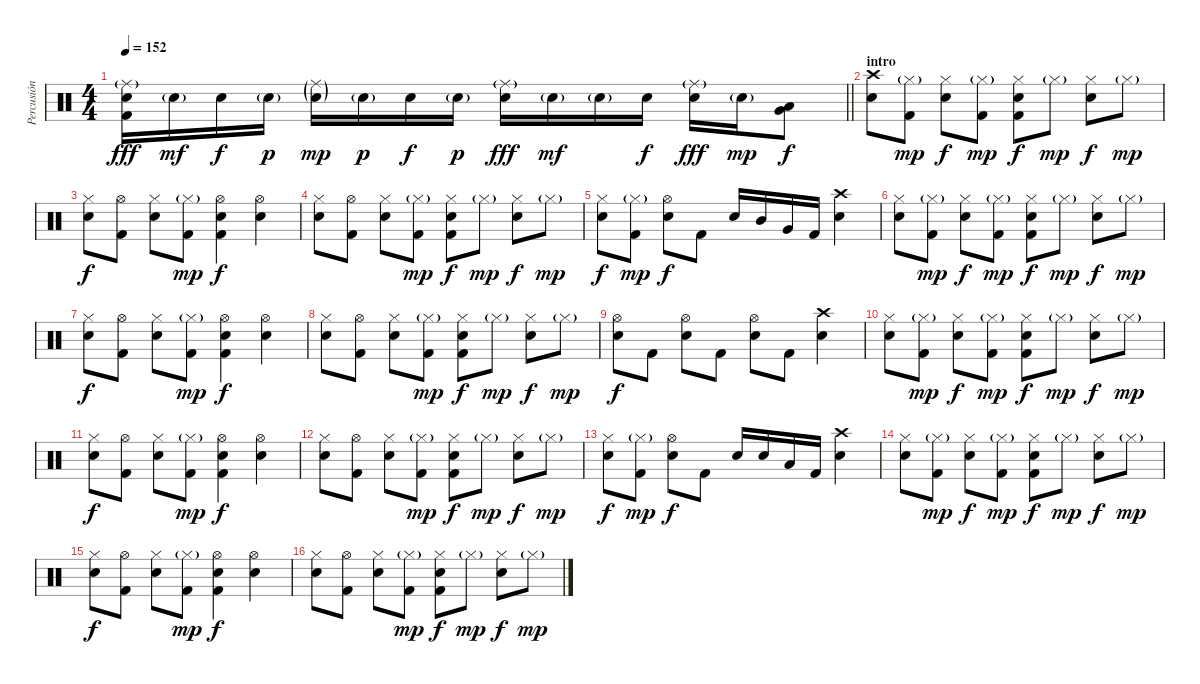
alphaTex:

\track ("Percusión" "Percusión") {instrument percussion}
\staff {score}
\articulation defaults
\ts (4 4)
\tempo 152
\clef neutral
\barLineRight lightlight
\ks c
("Ride (middle)"{g} "Snare (hit) 2" "Kick (hit) 2").16{dy fff} "Snare (hit) 2"{g}.16{dy mf} "Snare (hit) 2".16{dy f} "Snare (hit) 2"{g}.16{dy p} ("Ride (middle)"{g} "Snare (hit) 2"{g}).16{dy mp} "Snare (hit) 2"{g}.16{dy p} "Snare (hit) 2".16{dy f} "Snare (hit) 2"{g}.16{dy p} ("Ride (middle)"{g} "Snare (hit) 2").16{dy fff} "Snare (hit) 2"{g}.16{dy mf} "Snare (hit) 2"{g}.16 "Snare (hit) 2".16{dy f} ("Ride (middle)"{g} "Snare (hit) 2").16{dy fff} "Snare (hit) 2"{g}.16{dy mp} ("Low Tom (hit)" "Very Low Tom (hit)").8{dy f} |
\section ("" "intro")
("Crash high (hit)" "Snare (hit) 2").8 ("Hi-Hat (closed)"{g} "Kick (hit) 2").8{dy mp} ("Hi-Hat (closed)" "Snare (hit) 2").8{dy f} ("Hi-Hat (closed)"{g} "Kick (hit) 2").8{dy mp} ("Hi-Hat (closed)" "Snare (hit) 2" "Kick (hit) 2").8{dy f} "Hi-Hat (closed)"{g}.8{dy mp} ("Hi-Hat (closed)" "Snare (hit) 2").8{dy f} "Hi-Hat (closed)"{g}.8{dy mp} |
("Hi-Hat (closed)" "Snare (hit) 2").8{dy f} ("Hi-Hat (open)" "Kick (hit) 2").8 ("Hi-Hat (closed)" "Snare (hit) 2").8 ("Hi-Hat (closed)"{g} "Kick (hit) 2").8{dy mp} ("Hi-Hat (open)" "Snare (hit) 2" "Kick (hit) 2").4{dy f} ("Hi-Hat (open)" "Snare (hit) 2").4 |
("Hi-Hat (closed)" "Snare (hit) 2").8 ("Hi-Hat (open)" "Kick (hit) 2").8 ("Hi-Hat (closed)" "Snare (hit) 2").8 ("Hi-Hat (closed)"{g} "Kick (hit) 2").8{dy mp} ("Hi-Hat (closed)" "Snare (hit) 2" "Kick (hit) 2").8{dy f} "Hi-Hat (closed)"{g}.8{dy mp} ("Hi-Hat (closed)" "Snare (hit) 2").8{dy f} "Hi-Hat (closed)"{g}.8{dy mp} |
("Hi-Hat (closed)" "Snare (hit) 2").8{dy f} ("Hi-Hat (closed)"{g} "Kick (hit) 2").8{dy mp} ("Hi-Hat (open)" "Snare (hit) 2").8{dy f} "Kick (hit) 2".8 "Snare (hit) 2".16 "Mid Tom (hit)".16 "Very Low Tom (hit)".16 "Kick (hit) 2".16 ("Crash high (hit)" "Snare (hit) 2").4 |
("Hi-Hat (closed)" "Snare (hit) 2").8 ("Hi-Hat (closed)"{g} "Kick (hit) 2").8{dy mp} ("Hi-Hat (closed)" "Snare (hit) 2").8{dy f} ("Hi-Hat (closed)"{g} "Kick (hit) 2").8{dy mp} ("Hi-Hat (closed)" "Snare (hit) 2" "Kick (hit) 2").8{dy f} "Hi-Hat (closed)"{g}.8{dy mp} ("Hi-Hat (closed)" "Snare (hit) 2").8{dy f} "Hi-Hat (closed)"{g}.8{dy mp} |
("Hi-Hat (closed)" "Snare (hit) 2").8{dy f} ("Hi-Hat (open)" "Kick (hit) 2").8 ("Hi-Hat (closed)" "Snare (hit) 2").8 ("Hi-Hat (closed)"{g} "Kick (hit) 2").8{dy mp} ("Hi-Hat (open)" "Snare (hit) 2" "Kick (hit) 2").4{dy f} ("Hi-Hat (open)" "Snare (hit) 2").4 |
("Hi-Hat (closed)" "Snare (hit) 2").8 ("Hi-Hat (open)" "Kick (hit) 2").8 ("Hi-Hat (closed)" "Snare (hit) 2").8 ("Hi-Hat (closed)"{g} "Kick (hit) 2").8{dy mp} ("Hi-Hat (closed)" "Snare (hit) 2" "Kick (hit) 2").8{dy f} "Hi-Hat (closed)"{g}.8{dy mp} ("Hi-Hat (closed)" "Snare (hit) 2").8{dy f} "Hi-Hat (closed)"{g}.8{dy mp} |
("Hi-Hat (open)" "Snare (hit) 2").8{dy f} "Kick (hit) 2".8 ("Hi-Hat (open)" "Snare (hit) 2").8 "Kick (hit) 2".8 ("Hi-Hat (open)" "Snare (hit) 2").8 "Kick (hit) 2".8 ("Crash high (hit)" "Snare (hit) 2").4 |
("Hi-Hat (closed)" "Snare (hit) 2").8 ("Hi-Hat (closed)"{g} "Kick (hit) 2").8{dy mp} ("Hi-Hat (closed)" "Snare (hit) 2").8{dy f} ("Hi-Hat (closed)"{g} "Kick (hit) 2").8{dy mp} ("Hi-Hat (closed)" "Snare (hit) 2" "Kick (hit) 2").8{dy f} "Hi-Hat (closed)"{g}.8{dy mp} ("Hi-Hat (closed)" "Snare (hit) 2").8{dy f} "Hi-Hat (closed)"{g}.8{dy mp} |
("Hi-Hat (closed)" "Snare (hit) 2").8{dy f} ("Hi-Hat (open)" "Kick (hit) 2").8 ("Hi-Hat (closed)" "Snare (hit) 2").8 ("Hi-Hat (closed)"{g} "Kick (hit) 2").8{dy mp} ("Hi-Hat (open)" "Snare (hit) 2" "Kick (hit) 2").4{dy f} ("Hi-Hat (open)" "Snare (hit) 2").4 |
("Hi-Hat (closed)" "Snare (hit) 2").8 ("Hi-Hat (open)" "Kick (hit) 2").8 ("Hi-Hat (closed)" "Snare (hit) 2").8 ("Hi-Hat (closed)"{g} "Kick (hit) 2").8{dy mp} ("Hi-Hat (closed)" "Snare (hit) 2" "Kick (hit) 2").8{dy f} "Hi-Hat (closed)"{g}.8{dy mp} ("Hi-Hat (closed)" "Snare (hit) 2").8{dy f} "Hi-Hat (closed)"{g}.8{dy mp} |
("Hi-Hat (closed)" "Snare (hit) 2").8{dy f} ("Hi-Hat (closed)"{g} "Kick (hit) 2").8{dy mp} ("Hi-Hat (open)" "Snare (hit) 2").8{dy f} "Kick (hit) 2".8 "Snare (hit) 2".16 "Snare (hit) 2".16 "Low Tom (hit)".16 "Kick (hit) 2".16 ("Crash high (hit)" "Snare (hit) 2").4 |
("Hi-Hat (closed)" "Snare (hit) 2").8 ("Hi-Hat (closed)"{g} "Kick (hit) 2").8{dy mp} ("Hi-Hat (closed)" "Snare (hit) 2").8{dy f} ("Hi-Hat (closed)"{g} "Kick (hit) 2").8{dy mp} ("Hi-Hat (closed)" "Snare (hit) 2" "Kick (hit) 2").8{dy f} "Hi-Hat (closed)"{g}.8{dy mp} ("Hi-Hat (closed)" "Snare (hit) 2").8{dy f} "Hi-Hat (closed)"{g}.8{dy mp} |
("Hi-Hat (closed)" "Snare (hit) 2").8{dy f} ("Hi-Hat (open)" "Kick (hit) 2").8 ("Hi-Hat (closed)" "Snare (hit) 2").8 ("Hi-Hat (closed)"{g} "Kick (hit) 2").8{dy mp} ("Hi-Hat (open)" "Snare (hit) 2" "Kick (hit) 2").4{dy f} ("Hi-Hat (open)" "Snare (hit) 2").4 |
("Hi-Hat (closed)" "Snare (hit) 2").8 ("Hi-Hat (open)" "Kick (hit) 2").8 ("Hi-Hat (closed)" "Snare (hit) 2").8 ("Hi-Hat (closed)"{g} "Kick (hit) 2").8{dy mp} ("Hi-Hat (closed)" "Snare (hit) 2" "Kick (hit) 2").8{dy f} "Hi-Hat (closed)"{g}.8{dy mp} ("Hi-Hat (closed)" "Snare (hit) 2").8{dy f} "Hi-Hat (closed)"{g}.8{dy mp}
